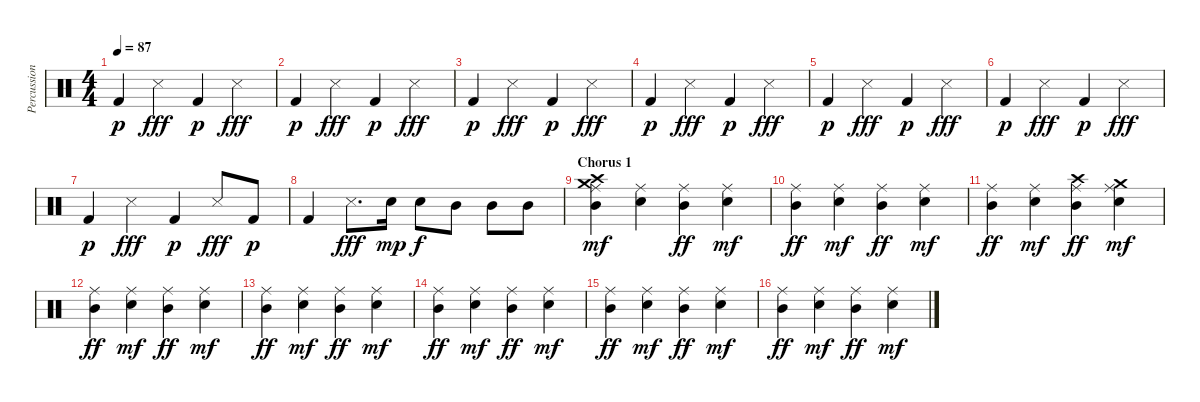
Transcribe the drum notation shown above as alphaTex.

\track ("Percussion" "Percussion") {instrument percussion}
\staff {score}
\articulation defaults
\ts (4 4)
\tempo 87
\clef neutral
\ks c "Kick (hit) 2".4{dy p} "Snare (side stick) 3".4{dy fff} "Kick (hit) 2".4{dy p} "Snare (side stick) 3".4{dy fff}
|
"Kick (hit) 2".4{dy p} "Snare (side stick) 3".4{dy fff} "Kick (hit) 2".4{dy p} "Snare (side stick) 3".4{dy fff} |
"Kick (hit) 2".4{dy p} "Snare (side stick) 3".4{dy fff} "Kick (hit) 2".4{dy p} "Snare (side stick) 3".4{dy fff} |
"Kick (hit) 2".4{dy p} "Snare (side stick) 3".4{dy fff} "Kick (hit) 2".4{dy p} "Snare (side stick) 3".4{dy fff} |
"Kick (hit) 2".4{dy p} "Snare (side stick) 3".4{dy fff} "Kick (hit) 2".4{dy p} "Snare (side stick) 3".4{dy fff} |
"Kick (hit) 2".4{dy p} "Snare (side stick) 3".4{dy fff} "Kick (hit) 2".4{dy p} "Snare (side stick) 3".4{dy fff} |
"Kick (hit) 2".4{dy p} "Snare (side stick) 3".4{dy fff} "Kick (hit) 2".4{dy p} "Snare (side stick) 3".8{dy fff} "Kick (hit) 2".8{dy p} |
"Kick (hit) 2".4 "Snare (side stick) 3".8{d dy fff} "Snare (hit) 2".16{dy mp} "Snare (hit) 2".8{dy f} "Mid Tom (hit)".8 "Mid Tom (hit)".8 "Mid Tom (hit)".8 |
\section ("" "Chorus 1")
("Ride (middle)" "Crash high (hit)" "Crash medium (hit)" "Mid Tom (hit)").4{dy mf} ("Ride (middle)" "Snare (hit) 2").4 ("Ride (middle)" "Mid Tom (hit)").4{dy ff} ("Ride (middle)" "Snare (hit) 2").4{dy mf} |
("Ride (middle)" "Mid Tom (hit)").4{dy ff} ("Ride (middle)" "Snare (hit) 2").4{dy mf} ("Ride (middle)" "Mid Tom (hit)").4{dy ff} ("Ride (middle)" "Snare (hit) 2").4{dy mf} |
("Ride (middle)" "Mid Tom (hit)").4{dy ff} ("Ride (middle)" "Snare (hit) 2").4{dy mf} ("Ride (middle)" "Crash high (hit)" "Mid Tom (hit)").4{dy ff} ("Ride (middle)" "Crash medium (hit)" "Snare (hit) 2").4{dy mf} |
("Ride (middle)" "Mid Tom (hit)").4{dy ff} ("Ride (middle)" "Snare (hit) 2").4{dy mf} ("Ride (middle)" "Mid Tom (hit)").4{dy ff} ("Ride (middle)" "Snare (hit) 2").4{dy mf} |
("Ride (middle)" "Mid Tom (hit)").4{dy ff} ("Ride (middle)" "Snare (hit) 2").4{dy mf} ("Ride (middle)" "Mid Tom (hit)").4{dy ff} ("Ride (middle)" "Snare (hit) 2").4{dy mf} |
("Ride (middle)" "Mid Tom (hit)").4{dy ff} ("Ride (middle)" "Snare (hit) 2").4{dy mf} ("Ride (middle)" "Mid Tom (hit)").4{dy ff} ("Ride (middle)" "Snare (hit) 2").4{dy mf} |
("Ride (middle)" "Mid Tom (hit)").4{dy ff} ("Ride (middle)" "Snare (hit) 2").4{dy mf} ("Ride (middle)" "Mid Tom (hit)").4{dy ff} ("Ride (middle)" "Snare (hit) 2").4{dy mf} |
("Ride (middle)" "Mid Tom (hit)").4{dy ff} ("Ride (middle)" "Snare (hit) 2").4{dy mf} ("Ride (middle)" "Mid Tom (hit)").4{dy ff} ("Ride (middle)" "Snare (hit) 2").4{dy mf}
